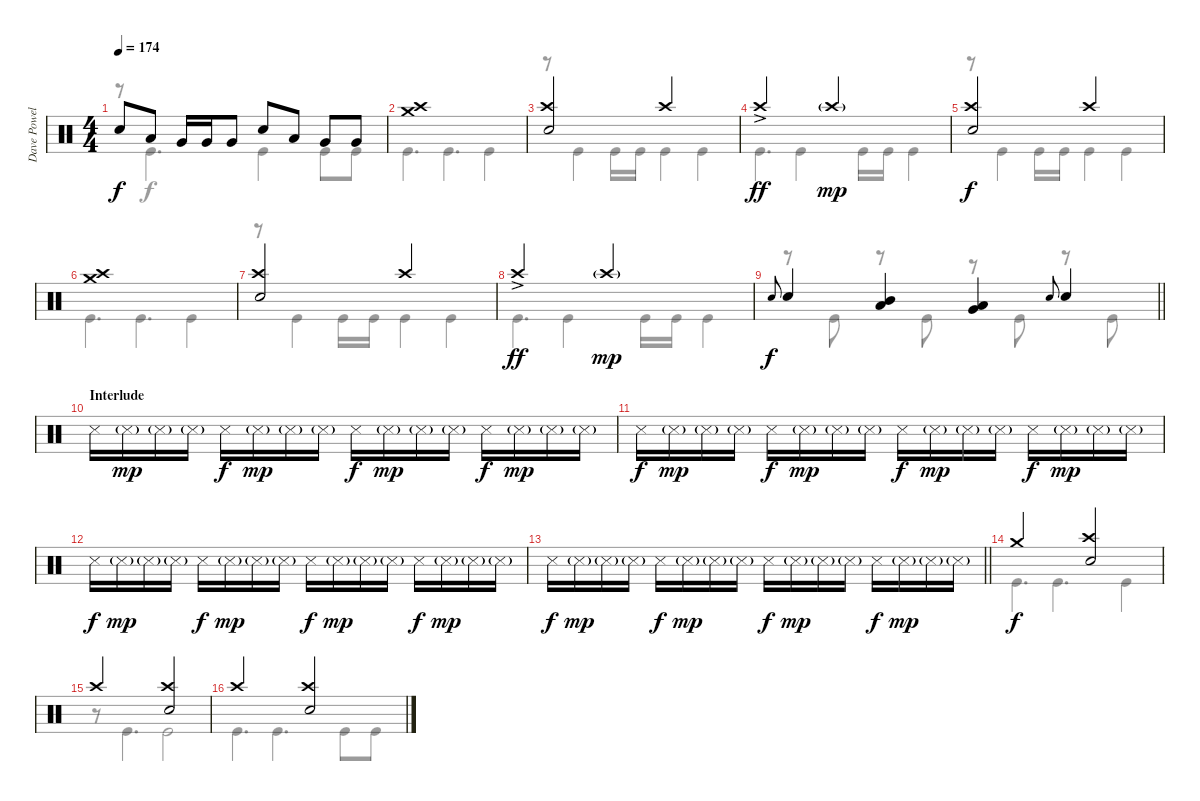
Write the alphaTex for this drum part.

\track ("Dave Powell" "Dave Powel") {instrument percussion}
\staff {score}
\articulation defaults
\voice
\ts (4 4)
\tempo 174
\clef neutral
\ks c "Electric Snare (hit)".8{dy f} "Low Tom (hit)".8 "Very Low Tom (hit)".16 "Very Low Tom (hit)".16 "Very Low Tom (hit)".8 "Electric Snare (hit)".8 "Low Tom (hit)".8 "Very Low Tom (hit)".8 "Very Low Tom (hit)".8
|
("Crash medium (hit)" "Crash high (hit)").1 |
("Crash high (hit)" "Electric Snare (hit)").2 "Crash high (hit)".2 |
"Crash high (hit)"{ac}.2{dy ff} "Crash high (hit)"{g}.2{dy mp} |
("Crash high (hit)" "Electric Snare (hit)").2{dy f} "Crash high (hit)".2 |
("Crash medium (hit)" "Crash high (hit)").1 |
("Crash high (hit)" "Electric Snare (hit)").2 "Crash high (hit)".2 |
"Crash high (hit)"{ac}.2{dy ff} "Crash high (hit)"{g}.2{dy mp} |
\barLineRight lightlight "Electric Snare (hit)".8{gr onbeat dy f} "Electric Snare (hit)".4
("Mid Tom (hit)" "Low Tom (hit)").4 ("Low Tom (hit)" "Very Low Tom (hit)").4 "Electric Snare (hit)".8{gr onbeat} "Electric Snare (hit)".4 |
\section ("" "Interlude")
"Snare (side stick) 3".16 "Snare (side stick) 3"{g}.16{dy mp} "Snare (side stick) 3"{g}.16 "Snare (side stick) 3"{g}.16 "Snare (side stick) 3".16{dy f} "Snare (side stick) 3"{g}.16{dy mp} "Snare (side stick) 3"{g}.16 "Snare (side stick) 3"{g}.16 "Snare (side stick) 3".16{dy f} "Snare (side stick) 3"{g}.16{dy mp} "Snare (side stick) 3"{g}.16 "Snare (side stick) 3"{g}.16 "Snare (side stick) 3".16{dy f} "Snare (side stick) 3"{g}.16{dy mp} "Snare (side stick) 3"{g}.16 "Snare (side stick) 3"{g}.16 |
"Snare (side stick) 3".16{dy f} "Snare (side stick) 3"{g}.16{dy mp} "Snare (side stick) 3"{g}.16 "Snare (side stick) 3"{g}.16 "Snare (side stick) 3".16{dy f} "Snare (side stick) 3"{g}.16{dy mp} "Snare (side stick) 3"{g}.16 "Snare (side stick) 3"{g}.16 "Snare (side stick) 3".16{dy f} "Snare (side stick) 3"{g}.16{dy mp} "Snare (side stick) 3"{g}.16 "Snare (side stick) 3"{g}.16 "Snare (side stick) 3".16{dy f} "Snare (side stick) 3"{g}.16{dy mp} "Snare (side stick) 3"{g}.16 "Snare (side stick) 3"{g}.16 |
"Snare (side stick) 3".16{dy f} "Snare (side stick) 3"{g}.16{dy mp} "Snare (side stick) 3"{g}.16 "Snare (side stick) 3"{g}.16 "Snare (side stick) 3".16{dy f} "Snare (side stick) 3"{g}.16{dy mp} "Snare (side stick) 3"{g}.16 "Snare (side stick) 3"{g}.16 "Snare (side stick) 3".16{dy f} "Snare (side stick) 3"{g}.16{dy mp} "Snare (side stick) 3"{g}.16 "Snare (side stick) 3"{g}.16 "Snare (side stick) 3".16{dy f} "Snare (side stick) 3"{g}.16{dy mp} "Snare (side stick) 3"{g}.16 "Snare (side stick) 3"{g}.16 |
\barLineRight lightlight "Snare (side stick) 3".16{dy f} "Snare (side stick) 3"{g}.16{dy mp} "Snare (side stick) 3"{g}.16 "Snare (side stick) 3"{g}.16 "Snare (side stick) 3".16{dy f} "Snare (side stick) 3"{g}.16{dy mp} "Snare (side stick) 3"{g}.16 "Snare (side stick) 3"{g}.16 "Snare (side stick) 3".16{dy f} "Snare (side stick) 3"{g}.16{dy mp} "Snare (side stick) 3"{g}.16 "Snare (side stick) 3"{g}.16 "Snare (side stick) 3".16{dy f} "Snare (side stick) 3"{g}.16{dy mp} "Snare (side stick) 3"{g}.16 "Snare (side stick) 3"{g}.16
|
\section ("" "")
"Crash medium (hit)".2{dy f} ("Crash high (hit)" "Electric Snare (hit)").2 |
"Crash high (hit)".2 ("Crash high (hit)" "Electric Snare (hit)").2 |
"Crash high (hit)".2 ("Crash high (hit)" "Electric Snare (hit)").2
\voice
\clef neutral
\ottava regular
\simile none
\ks c
r.8{dy f} "Kick (hit)".4{d} "Kick (hit)".4 "Kick (hit)".8 "Kick (hit)".8 |
"Kick (hit)".4{d} "Kick (hit)".4{d} "Kick (hit)".4 |
r.8 "Kick (hit)".4 "Kick (hit)".16 "Kick (hit)".16 "Kick (hit)".4 "Kick (hit)".4 |
"Kick (hit)".4{d} "Kick (hit)".4 "Kick (hit)".16 "Kick (hit)".16 "Kick (hit)".4 |
r.8 "Kick (hit)".4 "Kick (hit)".16 "Kick (hit)".16 "Kick (hit)".4 "Kick (hit)".4 |
"Kick (hit)".4{d} "Kick (hit)".4{d} "Kick (hit)".4 |
r.8 "Kick (hit)".4 "Kick (hit)".16 "Kick (hit)".16 "Kick (hit)".4 "Kick (hit)".4 |
"Kick (hit)".4{d} "Kick (hit)".4 "Kick (hit)".16 "Kick (hit)".16 "Kick (hit)".4 |
\barLineRight lightlight
r.8 "Kick (hit)".8 r.8 "Kick (hit)".8 r.8 "Kick (hit)".8 r.8 "Kick (hit)".8 |
|
|
|
\barLineRight lightlight
|
"Kick (hit)".4{d} "Kick (hit)".4{d} "Kick (hit)".4 |
r.8 "Kick (hit)".4{d} "Kick (hit)".2 |
"Kick (hit)".4{d} "Kick (hit)".4{d} "Kick (hit)".8 "Kick (hit)".8
